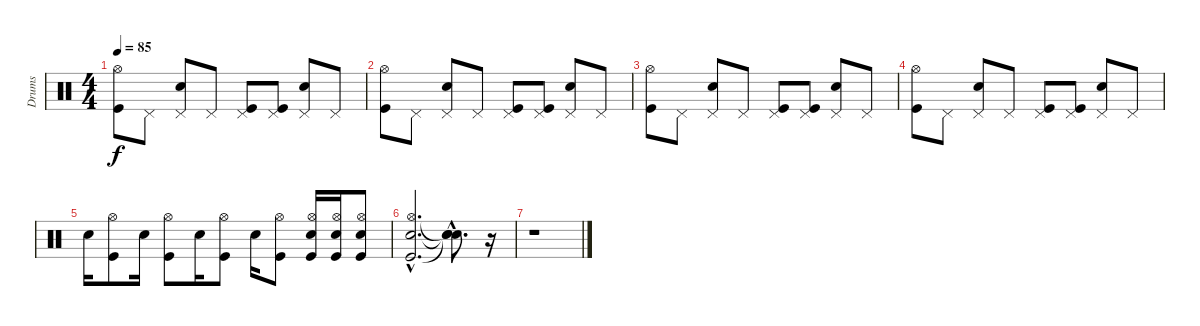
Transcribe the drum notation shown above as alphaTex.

\track ("Drums" "Drums") {instrument percussion}
\staff {score}
\articulation defaults
\ts (4 4)
\tempo 85
\clef neutral
\ks c
("Kick (hit)" "Hi-Hat (open)").8{dy f} "Pedal Hi-Hat (hit)".8 ("Electric Snare (hit)" "Pedal Hi-Hat (hit)").8 "Pedal Hi-Hat (hit)".8 ("Kick (hit)" "Pedal Hi-Hat (hit)").8 ("Kick (hit)" "Pedal Hi-Hat (hit)").8 ("Electric Snare (hit)" "Pedal Hi-Hat (hit)").8 "Pedal Hi-Hat (hit)".8 |
("Kick (hit)" "Hi-Hat (open)").8 "Pedal Hi-Hat (hit)".8 ("Electric Snare (hit)" "Pedal Hi-Hat (hit)").8 "Pedal Hi-Hat (hit)".8 ("Kick (hit)" "Pedal Hi-Hat (hit)").8 ("Kick (hit)" "Pedal Hi-Hat (hit)").8 ("Electric Snare (hit)" "Pedal Hi-Hat (hit)").8 "Pedal Hi-Hat (hit)".8 |
("Kick (hit)" "Hi-Hat (open)").8 "Pedal Hi-Hat (hit)".8 ("Electric Snare (hit)" "Pedal Hi-Hat (hit)").8 "Pedal Hi-Hat (hit)".8 ("Kick (hit)" "Pedal Hi-Hat (hit)").8 ("Kick (hit)" "Pedal Hi-Hat (hit)").8 ("Electric Snare (hit)" "Pedal Hi-Hat (hit)").8 "Pedal Hi-Hat (hit)".8 |
("Kick (hit)" "Hi-Hat (open)").8 "Pedal Hi-Hat (hit)".8 ("Electric Snare (hit)" "Pedal Hi-Hat (hit)").8 "Pedal Hi-Hat (hit)".8 ("Kick (hit)" "Pedal Hi-Hat (hit)").8 ("Kick (hit)" "Pedal Hi-Hat (hit)").8 ("Electric Snare (hit)" "Pedal Hi-Hat (hit)").8 "Pedal Hi-Hat (hit)".8 |
"Electric Snare (hit)".16 ("Kick (hit)" "Hi-Hat (open)").8 "Electric Snare (hit)".16 ("Kick (hit)" "Hi-Hat (open)").8 "Electric Snare (hit)".16 ("Kick (hit)" "Hi-Hat (open)").8 "Electric Snare (hit)".16 ("Kick (hit)" "Hi-Hat (open)").8 ("Kick (hit)" "Electric Snare (hit)" "Hi-Hat (open)").16 ("Kick (hit)" "Electric Snare (hit)" "Hi-Hat (open)").16 ("Kick (hit)" "Electric Snare (hit)" "Hi-Hat (open)").8 |
("Kick (hit)"{hac} "Electric Snare (hit)"{hac} "Hi-Hat (open)"{hac}).2{d} ("Snare (hit)"{hac t} "Snare (hit)"{hac t} "Snare (hit)"{hac t}).8{d} r.16 |
r.1
